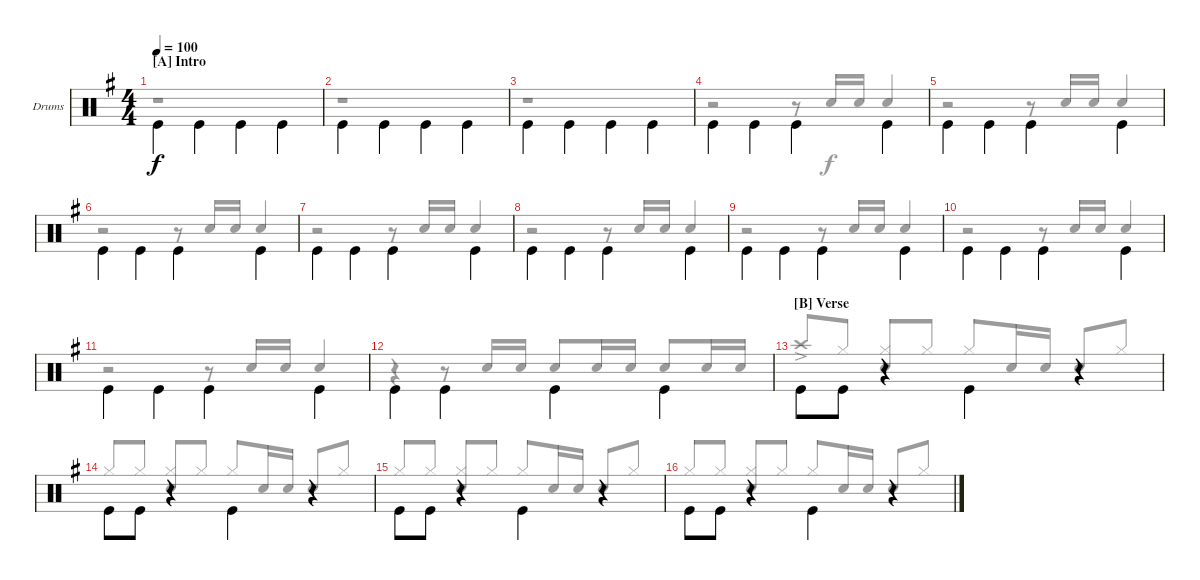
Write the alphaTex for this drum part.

\bracketExtendMode groupsimilarinstruments
\firstSystemTrackNameOrientation horizontal
\otherSystemsTrackNameOrientation horizontal
\track ("Drum" "Drums") {instrument percussion}
\staff {score}
\articulation defaults
\voice
\ts (4 4)
\section ("A" "Intro")
\tempo 100
\clef neutral
\scale
1.05675
\ks g "Kick (hit)".4{dy f beam invert} "Kick (hit)".4{beam invert} "Kick (hit)".4{beam invert} "Kick (hit)".4{beam invert}
|
\scale
0.943253 "Kick (hit)".4{beam invert} "Kick (hit)".4{beam invert} "Kick (hit)".4{beam invert} "Kick (hit)".4{beam invert} |
\scale
1.02648 "Kick (hit)".4{beam invert} "Kick (hit)".4{beam invert} "Kick (hit)".4{beam invert} "Kick (hit)".4{beam invert} |
\scale
0.973518 "Kick (hit)".4{beam invert} "Kick (hit)".4{beam invert} "Kick (hit)".4{beam invert} "Kick (hit)".4{beam invert} |
\scale
1.02648 "Kick (hit)".4{beam invert} "Kick (hit)".4{beam invert} "Kick (hit)".4{beam invert} "Kick (hit)".4{beam invert} |
\scale
0.973518 "Kick (hit)".4{beam invert} "Kick (hit)".4{beam invert} "Kick (hit)".4{beam invert} "Kick (hit)".4{beam invert} |
\scale
1.02648 "Kick (hit)".4{beam invert} "Kick (hit)".4{beam invert} "Kick (hit)".4{beam invert} "Kick (hit)".4{beam invert} |
\scale
0.973518 "Kick (hit)".4{beam invert} "Kick (hit)".4{beam invert} "Kick (hit)".4{beam invert} "Kick (hit)".4{beam invert} |
\scale
1.02648 "Kick (hit)".4{beam invert} "Kick (hit)".4{beam invert} "Kick (hit)".4{beam invert} "Kick (hit)".4{beam invert} |
\scale
0.973518 "Kick (hit)".4{beam invert} "Kick (hit)".4{beam invert} "Kick (hit)".4{beam invert} "Kick (hit)".4{beam invert} |
\scale
1.02648 "Kick (hit)".4{beam invert} "Kick (hit)".4{beam invert} "Kick (hit)".4{beam invert} "Kick (hit)".4{beam invert} |
\scale
0.973518 "Kick (hit)".4{beam invert} "Kick (hit)".4{beam invert} "Kick (hit)".4{beam invert} "Kick (hit)".4{beam invert} |
\section ("B" "Verse")
\scale
1.02648 "Kick (hit)".8{beam invert} "Kick (hit)".8 r.4 "Kick (hit)".4{beam invert} r.4 |
\scale
0.973518 "Kick (hit)".8{beam invert} "Kick (hit)".8 r.4 "Kick (hit)".4{beam invert} r.4 |
\scale
1.02648 "Kick (hit)".8{beam invert} "Kick (hit)".8 r.4 "Kick (hit)".4{beam invert} r.4 |
\scale
0.973518 "Kick (hit)".8{beam invert} "Kick (hit)".8 r.4 "Kick (hit)".4{beam invert} r.4
\voice
\clef neutral
\ottava regular
\simile none
\scale
1.05675
\ks g
r.1{dy f} |
\scale
0.943253 r.1 |
\scale
1.02648 r.1 |
\scale
0.973518 r.2 r.8 "Snare (hit) 2".16{beam invert} "Snare (hit) 2".16 "Snare (hit) 2".4{beam invert} |
\scale
1.02648 r.2 r.8 "Snare (hit) 2".16{beam invert} "Snare (hit) 2".16 "Snare (hit) 2".4{beam invert} |
\scale
0.973518 r.2 r.8 "Snare (hit) 2".16{beam invert} "Snare (hit) 2".16 "Snare (hit) 2".4{beam invert} |
\scale
1.02648 r.2 r.8 "Snare (hit) 2".16{beam invert} "Snare (hit) 2".16 "Snare (hit) 2".4{beam invert} |
\scale
0.973518 r.2 r.8 "Snare (hit) 2".16{beam invert} "Snare (hit) 2".16 "Snare (hit) 2".4{beam invert} |
\scale
1.02648 r.2 r.8 "Snare (hit) 2".16{beam invert} "Snare (hit) 2".16 "Snare (hit) 2".4{beam invert} |
\scale
0.973518 r.2 r.8 "Snare (hit) 2".16{beam invert} "Snare (hit) 2".16 "Snare (hit) 2".4{beam invert} |
\scale
1.02648 r.2 r.8 "Snare (hit) 2".16{beam invert} "Snare (hit) 2".16 "Snare (hit) 2".4{beam invert} |
\scale
0.973518 r.4 r.8 "Snare (hit) 2".16{beam invert} "Snare (hit) 2".16 "Snare (hit) 2".8{beam invert} "Snare (hit) 2".16 "Snare (hit) 2".16 "Snare (hit) 2".8{beam invert} "Snare (hit) 2".16 "Snare (hit) 2".16 |
\scale
1.02648 "Crash high (hit)"{ac}.8{beam invert} "Hi-Hat (closed)".8 ("Hi-Hat (closed)" "Snare (hit) 2").8{beam invert} "Hi-Hat (closed)".8 "Hi-Hat (closed)".8{beam invert} "Snare (hit) 2".16 "Snare (hit) 2".16 "Snare (hit) 2".8{beam invert} "Hi-Hat (closed)".8 |
\scale
0.973518 "Hi-Hat (closed)".8{beam invert} "Hi-Hat (closed)".8 ("Hi-Hat (closed)" "Snare (hit) 2").8{beam invert} "Hi-Hat (closed)".8 "Hi-Hat (closed)".8{beam invert} "Snare (hit) 2".16 "Snare (hit) 2".16 "Snare (hit) 2".8{beam invert} "Hi-Hat (closed)".8 |
\scale
1.02648 "Hi-Hat (closed)".8{beam invert} "Hi-Hat (closed)".8 ("Hi-Hat (closed)" "Snare (hit) 2").8{beam invert} "Hi-Hat (closed)".8 "Hi-Hat (closed)".8{beam invert} "Snare (hit) 2".16 "Snare (hit) 2".16 "Snare (hit) 2".8{beam invert} "Hi-Hat (closed)".8 |
\scale
0.973518 "Hi-Hat (closed)".8{beam invert} "Hi-Hat (closed)".8 ("Hi-Hat (closed)" "Snare (hit) 2").8{beam invert} "Hi-Hat (closed)".8 "Hi-Hat (closed)".8{beam invert} "Snare (hit) 2".16 "Snare (hit) 2".16 "Snare (hit) 2".8{beam invert} "Hi-Hat (closed)".8
